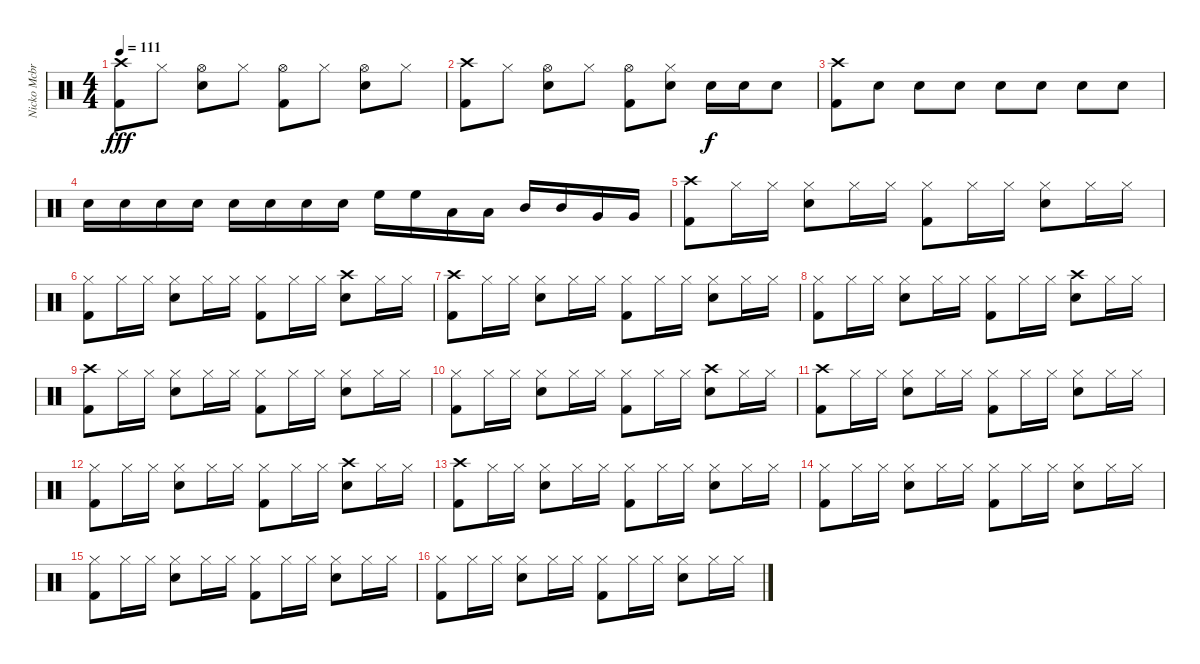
\track ("Nicko Mcbrain" "Nicko Mcbr") {instrument percussion}
\staff {score}
\articulation defaults
\ts (4 4)
\tempo 111
\clef neutral
\ks c
("Crash high (hit)" "Kick (hit) 2").8{dy fff} "Hi-Hat (closed)".8 ("Hi-Hat (open)" "Snare (hit) 2").8 "Hi-Hat (closed)".8 ("Hi-Hat (open)" "Kick (hit) 2").8 "Hi-Hat (closed)".8 ("Hi-Hat (open)" "Snare (hit) 2").8 "Hi-Hat (closed)".8 |
("Crash high (hit)" "Kick (hit) 2").8 "Hi-Hat (closed)".8 ("Hi-Hat (open)" "Snare (hit) 2").8 "Hi-Hat (closed)".8 ("Hi-Hat (open)" "Kick (hit) 2").8 ("Hi-Hat (closed)" "Snare (hit) 2").8 "Snare (hit) 2".16{dy f} "Snare (hit) 2".16 "Snare (hit) 2".8 |
("Crash high (hit)" "Kick (hit) 2").8 "Snare (hit) 2".8 "Snare (hit) 2".8 "Snare (hit) 2".8 "Snare (hit) 2".8 "Snare (hit) 2".8 "Snare (hit) 2".8 "Snare (hit) 2".8 |
"Snare (hit) 2".16 "Snare (hit) 2".16 "Snare (hit) 2".16 "Snare (hit) 2".16 "Snare (hit) 2".16 "Snare (hit) 2".16 "Snare (hit) 2".16 "Snare (hit) 2".16 "High Floor Tom (hit)".16 "High Floor Tom (hit)".16 "Low Tom (hit)".16 "Low Tom (hit)".16 "Mid Tom (hit)".16 "Mid Tom (hit)".16 "Very Low Tom (hit)".16 "Very Low Tom (hit)".16 |
("Crash high (hit)" "Kick (hit) 2").8 "Hi-Hat (closed)".16 "Hi-Hat (closed)".16 ("Hi-Hat (closed)" "Snare (hit) 2").8 "Hi-Hat (closed)".16 "Hi-Hat (closed)".16 ("Hi-Hat (closed)" "Kick (hit) 2").8 "Hi-Hat (closed)".16 "Hi-Hat (closed)".16 ("Hi-Hat (closed)" "Snare (hit) 2").8 "Hi-Hat (closed)".16 "Hi-Hat (closed)".16 |
("Hi-Hat (closed)" "Kick (hit) 2").8 "Hi-Hat (closed)".16 "Hi-Hat (closed)".16 ("Hi-Hat (closed)" "Snare (hit) 2").8 "Hi-Hat (closed)".16 "Hi-Hat (closed)".16 ("Hi-Hat (closed)" "Kick (hit) 2").8 "Hi-Hat (closed)".16 "Hi-Hat (closed)".16 ("Crash high (hit)" "Snare (hit) 2").8 "Hi-Hat (closed)".16 "Hi-Hat (closed)".16 |
("Crash high (hit)" "Kick (hit) 2").8 "Hi-Hat (closed)".16 "Hi-Hat (closed)".16 ("Hi-Hat (closed)" "Snare (hit) 2").8 "Hi-Hat (closed)".16 "Hi-Hat (closed)".16 ("Hi-Hat (closed)" "Kick (hit) 2").8 "Hi-Hat (closed)".16 "Hi-Hat (closed)".16 ("Hi-Hat (closed)" "Snare (hit) 2").8 "Hi-Hat (closed)".16 "Hi-Hat (closed)".16 |
("Hi-Hat (closed)" "Kick (hit) 2").8 "Hi-Hat (closed)".16 "Hi-Hat (closed)".16 ("Hi-Hat (closed)" "Snare (hit) 2").8 "Hi-Hat (closed)".16 "Hi-Hat (closed)".16 ("Hi-Hat (closed)" "Kick (hit) 2").8 "Hi-Hat (closed)".16 "Hi-Hat (closed)".16 ("Crash high (hit)" "Snare (hit) 2").8 "Hi-Hat (closed)".16 "Hi-Hat (closed)".16 |
("Crash high (hit)" "Kick (hit) 2").8 "Hi-Hat (closed)".16 "Hi-Hat (closed)".16 ("Hi-Hat (closed)" "Snare (hit) 2").8 "Hi-Hat (closed)".16 "Hi-Hat (closed)".16 ("Hi-Hat (closed)" "Kick (hit) 2").8 "Hi-Hat (closed)".16 "Hi-Hat (closed)".16 ("Hi-Hat (closed)" "Snare (hit) 2").8 "Hi-Hat (closed)".16 "Hi-Hat (closed)".16 |
("Hi-Hat (closed)" "Kick (hit) 2").8 "Hi-Hat (closed)".16 "Hi-Hat (closed)".16 ("Hi-Hat (closed)" "Snare (hit) 2").8 "Hi-Hat (closed)".16 "Hi-Hat (closed)".16 ("Hi-Hat (closed)" "Kick (hit) 2").8 "Hi-Hat (closed)".16 "Hi-Hat (closed)".16 ("Crash high (hit)" "Snare (hit) 2").8 "Hi-Hat (closed)".16 "Hi-Hat (closed)".16 |
("Crash high (hit)" "Kick (hit) 2").8 "Hi-Hat (closed)".16 "Hi-Hat (closed)".16 ("Hi-Hat (closed)" "Snare (hit) 2").8 "Hi-Hat (closed)".16 "Hi-Hat (closed)".16 ("Hi-Hat (closed)" "Kick (hit) 2").8 "Hi-Hat (closed)".16 "Hi-Hat (closed)".16 ("Hi-Hat (closed)" "Snare (hit) 2").8 "Hi-Hat (closed)".16 "Hi-Hat (closed)".16 |
("Hi-Hat (closed)" "Kick (hit) 2").8 "Hi-Hat (closed)".16 "Hi-Hat (closed)".16 ("Hi-Hat (closed)" "Snare (hit) 2").8 "Hi-Hat (closed)".16 "Hi-Hat (closed)".16 ("Hi-Hat (closed)" "Kick (hit) 2").8 "Hi-Hat (closed)".16 "Hi-Hat (closed)".16 ("Crash high (hit)" "Snare (hit) 2").8 "Hi-Hat (closed)".16 "Hi-Hat (closed)".16 |
("Crash high (hit)" "Kick (hit) 2").8 "Hi-Hat (closed)".16 "Hi-Hat (closed)".16 ("Hi-Hat (closed)" "Snare (hit) 2").8 "Hi-Hat (closed)".16 "Hi-Hat (closed)".16 ("Hi-Hat (closed)" "Kick (hit) 2").8 "Hi-Hat (closed)".16 "Hi-Hat (closed)".16 ("Hi-Hat (closed)" "Snare (hit) 2").8 "Hi-Hat (closed)".16 "Hi-Hat (closed)".16 |
("Hi-Hat (closed)" "Kick (hit) 2").8 "Hi-Hat (closed)".16 "Hi-Hat (closed)".16 ("Hi-Hat (closed)" "Snare (hit) 2").8 "Hi-Hat (closed)".16 "Hi-Hat (closed)".16 ("Hi-Hat (closed)" "Kick (hit) 2").8 "Hi-Hat (closed)".16 "Hi-Hat (closed)".16 ("Hi-Hat (closed)" "Snare (hit) 2").8 "Hi-Hat (closed)".16 "Hi-Hat (closed)".16 |
("Hi-Hat (closed)" "Kick (hit) 2").8 "Hi-Hat (closed)".16 "Hi-Hat (closed)".16 ("Hi-Hat (closed)" "Snare (hit) 2").8 "Hi-Hat (closed)".16 "Hi-Hat (closed)".16 ("Hi-Hat (closed)" "Kick (hit) 2").8 "Hi-Hat (closed)".16 "Hi-Hat (closed)".16 ("Hi-Hat (closed)" "Snare (hit) 2").8 "Hi-Hat (closed)".16 "Hi-Hat (closed)".16 |
("Hi-Hat (closed)" "Kick (hit) 2").8 "Hi-Hat (closed)".16 "Hi-Hat (closed)".16 ("Hi-Hat (closed)" "Snare (hit) 2").8 "Hi-Hat (closed)".16 "Hi-Hat (closed)".16 ("Hi-Hat (closed)" "Kick (hit) 2").8 "Hi-Hat (closed)".16 "Hi-Hat (closed)".16 ("Hi-Hat (closed)" "Snare (hit) 2").8 "Hi-Hat (closed)".16 "Hi-Hat (closed)".16
